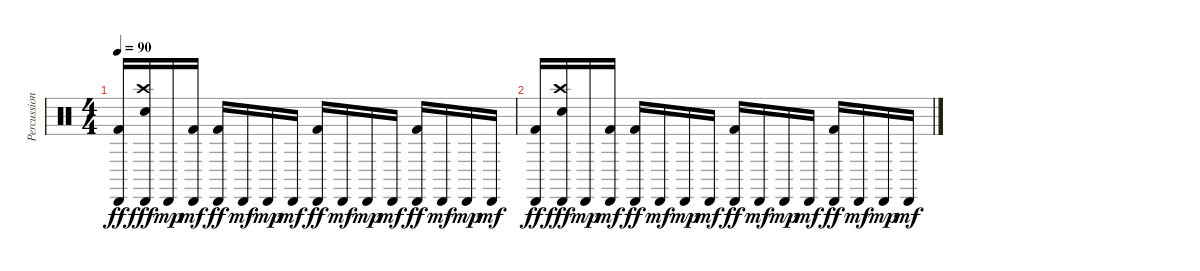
\track ("Percussions" "Percussion") {instrument percussion}
\staff {score}
\articulation defaults
\ts (4 4)
\tempo 90
\clef neutral
\ks c
("Cabasa (hit)" "Kick (hit) 2").16{dy ff} ("Cabasa (hit)" "Crash high (hit)" "Snare (hit) 2").16{dy fff} "Cabasa (hit)".16{dy mp} ("Cabasa (hit)" "Kick (hit) 2").16{dy mf} ("Cabasa (hit)" "Kick (hit) 2").16{dy ff} "Cabasa (hit)".16{dy mf} "Cabasa (hit)".16{dy mp} "Cabasa (hit)".16{dy mf} ("Cabasa (hit)" "Kick (hit) 2").16{dy ff} "Cabasa (hit)".16{dy mf} "Cabasa (hit)".16{dy mp} "Cabasa (hit)".16{dy mf} ("Cabasa (hit)" "Kick (hit) 2").16{dy ff} "Cabasa (hit)".16{dy mf} "Cabasa (hit)".16{dy mp} "Cabasa (hit)".16{dy mf} |
("Cabasa (hit)" "Kick (hit) 2").16{dy ff} ("Cabasa (hit)" "Crash high (hit)" "Snare (hit) 2").16{dy fff} "Cabasa (hit)".16{dy mp} ("Cabasa (hit)" "Kick (hit) 2").16{dy mf} ("Cabasa (hit)" "Kick (hit) 2").16{dy ff} "Cabasa (hit)".16{dy mf} "Cabasa (hit)".16{dy mp} "Cabasa (hit)".16{dy mf} ("Cabasa (hit)" "Kick (hit) 2").16{dy ff} "Cabasa (hit)".16{dy mf} "Cabasa (hit)".16{dy mp} "Cabasa (hit)".16{dy mf} ("Cabasa (hit)" "Kick (hit) 2").16{dy ff} "Cabasa (hit)".16{dy mf} "Cabasa (hit)".16{dy mp} "Cabasa (hit)".16{dy mf}
